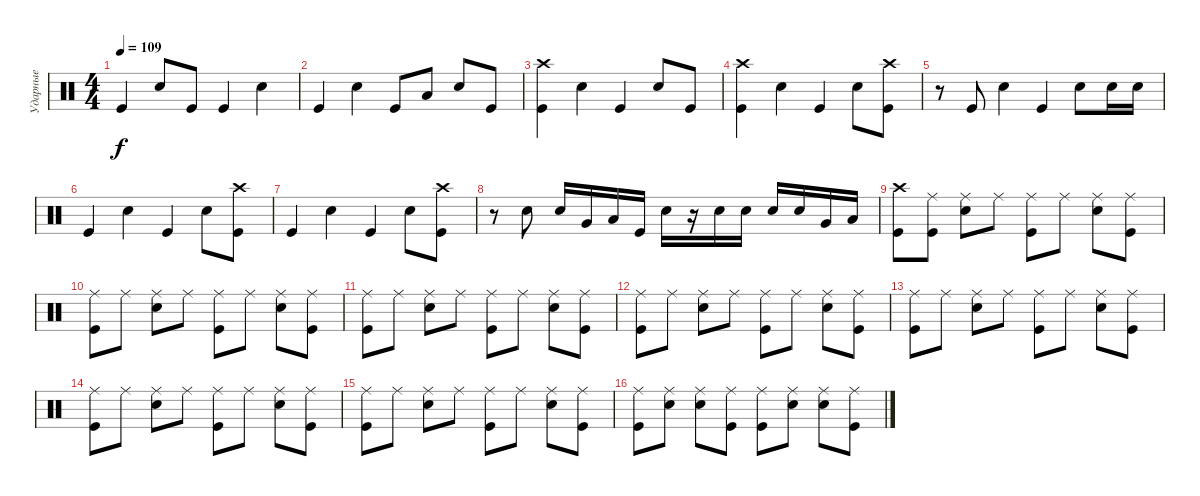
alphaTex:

\track ("Ударные" "Ударные") {instrument percussion}
\staff {score}
\articulation defaults
\ts (4 4)
\tempo 109
\clef neutral
\ks c "Kick (hit)".4{dy f} "Snare (hit) 2".8 "Kick (hit)".8 "Kick (hit)".4 "Snare (hit) 2".4
|
"Kick (hit)".4 "Snare (hit) 2".4 "Kick (hit)".8 "Low Floor Tom (hit)".8 "Snare (hit) 2".8 "Kick (hit)".8 |
("Kick (hit)" "Crash high (hit)").4 "Snare (hit) 2".4 "Kick (hit)".4 "Snare (hit) 2".8 "Kick (hit)".8 |
("Kick (hit)" "Crash high (hit)").4 "Snare (hit) 2".4 "Kick (hit)".4 "Snare (hit) 2".8 ("Kick (hit)" "Crash high (hit)").8 |
r.8 "Kick (hit)".8 "Snare (hit) 2".4 "Kick (hit)".4 "Snare (hit) 2".8 "Snare (hit) 2".16 "Snare (hit) 2".16 |
"Kick (hit)".4 "Snare (hit) 2".4 "Kick (hit)".4 "Snare (hit) 2".8 ("Kick (hit)" "Crash high (hit)").8 |
"Kick (hit)".4 "Snare (hit) 2".4 "Kick (hit)".4 "Snare (hit) 2".8 ("Kick (hit)" "Crash high (hit)").8 |
r.8 "Snare (hit) 2".8 "Snare (hit) 2".16 "Very Low Tom (hit)".16 "Low Floor Tom (hit)".16 "Kick (hit)".16 "Snare (hit) 2".16 r.16 "Snare (hit) 2".16 "Snare (hit) 2".16 "Snare (hit) 2".16 "Snare (hit) 2".16 "Very Low Tom (hit)".16 "Low Floor Tom (hit)".16 |
("Crash high (hit)" "Kick (hit)").8 ("Ride (middle)" "Kick (hit)").8 ("Ride (middle)" "Snare (hit) 2").8 "Ride (middle)".8 ("Kick (hit)" "Ride (middle)").8 "Ride (middle)".8 ("Snare (hit) 2" "Ride (middle)").8 ("Kick (hit)" "Ride (middle)").8 |
("Kick (hit)" "Ride (middle)").8 "Ride (middle)".8 ("Snare (hit) 2" "Ride (middle)").8 "Ride (middle)".8 ("Kick (hit)" "Ride (middle)").8 "Ride (middle)".8 ("Snare (hit) 2" "Ride (middle)").8 ("Kick (hit)" "Ride (middle)").8 |
("Kick (hit)" "Ride (middle)").8 "Ride (middle)".8 ("Snare (hit) 2" "Ride (middle)").8 "Ride (middle)".8 ("Kick (hit)" "Ride (middle)").8 "Ride (middle)".8 ("Snare (hit) 2" "Ride (middle)").8 ("Kick (hit)" "Ride (middle)").8 |
("Kick (hit)" "Ride (middle)").8 "Ride (middle)".8 ("Snare (hit) 2" "Ride (middle)").8 "Ride (middle)".8 ("Kick (hit)" "Ride (middle)").8 "Ride (middle)".8 ("Snare (hit) 2" "Ride (middle)").8 ("Kick (hit)" "Ride (middle)").8 |
("Kick (hit)" "Ride (middle)").8 "Ride (middle)".8 ("Snare (hit) 2" "Ride (middle)").8 "Ride (middle)".8 ("Kick (hit)" "Ride (middle)").8 "Ride (middle)".8 ("Snare (hit) 2" "Ride (middle)").8 ("Kick (hit)" "Ride (middle)").8 |
("Kick (hit)" "Ride (middle)").8 "Ride (middle)".8 ("Snare (hit) 2" "Ride (middle)").8 "Ride (middle)".8 ("Kick (hit)" "Ride (middle)").8 "Ride (middle)".8 ("Snare (hit) 2" "Ride (middle)").8 ("Kick (hit)" "Ride (middle)").8 |
("Kick (hit)" "Ride (middle)").8 "Ride (middle)".8 ("Snare (hit) 2" "Ride (middle)").8 "Ride (middle)".8 ("Kick (hit)" "Ride (middle)").8 "Ride (middle)".8 ("Snare (hit) 2" "Ride (middle)").8 ("Kick (hit)" "Ride (middle)").8 |
("Kick (hit)" "Ride (middle)").8 ("Snare (hit) 2" "Ride (middle)").8 ("Snare (hit) 2" "Ride (middle)").8 ("Kick (hit)" "Ride (middle)").8 ("Kick (hit)" "Ride (middle)").8 ("Snare (hit) 2" "Ride (middle)").8 ("Snare (hit) 2" "Ride (middle)").8 ("Kick (hit)" "Ride (middle)").8
